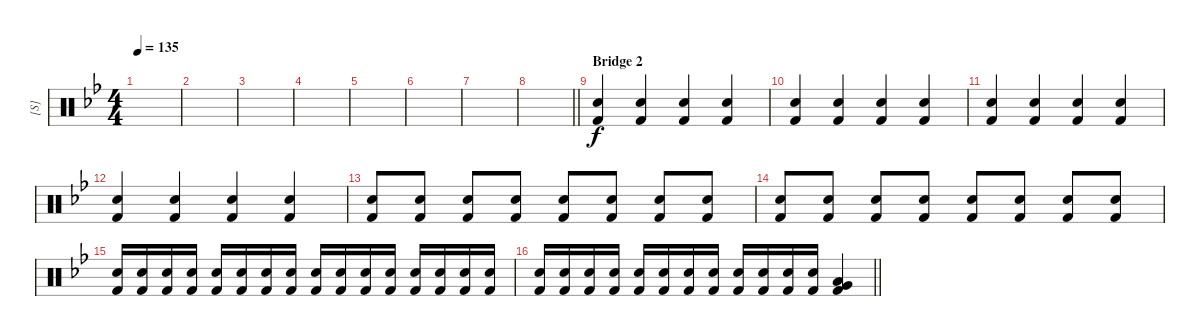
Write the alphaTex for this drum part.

\track ("[S]" "[S]") {instrument percussion}
\staff {score}
\articulation defaults
\ts (4 4)
\tempo 135
\clef neutral
\ks gminor
|
|
|
|
|
|
|
\barLineRight lightlight
|
\section ("" "Bridge 2")
("Snare (hit) 2" "Kick (hit) 2").4 ("Snare (hit) 2" "Kick (hit) 2").4 ("Snare (hit) 2" "Kick (hit) 2").4 ("Snare (hit) 2" "Kick (hit) 2").4 |
("Snare (hit) 2" "Kick (hit) 2").4 ("Snare (hit) 2" "Kick (hit) 2").4 ("Snare (hit) 2" "Kick (hit) 2").4 ("Snare (hit) 2" "Kick (hit) 2").4 |
("Snare (hit) 2" "Kick (hit) 2").4 ("Snare (hit) 2" "Kick (hit) 2").4 ("Snare (hit) 2" "Kick (hit) 2").4 ("Snare (hit) 2" "Kick (hit) 2").4 |
("Snare (hit) 2" "Kick (hit) 2").4 ("Snare (hit) 2" "Kick (hit) 2").4 ("Snare (hit) 2" "Kick (hit) 2").4 ("Snare (hit) 2" "Kick (hit) 2").4 |
("Snare (hit) 2" "Kick (hit) 2").8 ("Snare (hit) 2" "Kick (hit) 2").8 ("Snare (hit) 2" "Kick (hit) 2").8 ("Snare (hit) 2" "Kick (hit) 2").8 ("Snare (hit) 2" "Kick (hit) 2").8 ("Snare (hit) 2" "Kick (hit) 2").8 ("Snare (hit) 2" "Kick (hit) 2").8 ("Snare (hit) 2" "Kick (hit) 2").8 |
("Snare (hit) 2" "Kick (hit) 2").8 ("Snare (hit) 2" "Kick (hit) 2").8 ("Snare (hit) 2" "Kick (hit) 2").8 ("Snare (hit) 2" "Kick (hit) 2").8 ("Snare (hit) 2" "Kick (hit) 2").8 ("Snare (hit) 2" "Kick (hit) 2").8 ("Snare (hit) 2" "Kick (hit) 2").8 ("Snare (hit) 2" "Kick (hit) 2").8 |
("Snare (hit) 2" "Kick (hit) 2").16 ("Snare (hit) 2" "Kick (hit) 2").16 ("Snare (hit) 2" "Kick (hit) 2").16 ("Snare (hit) 2" "Kick (hit) 2").16 ("Snare (hit) 2" "Kick (hit) 2").16 ("Snare (hit) 2" "Kick (hit) 2").16 ("Snare (hit) 2" "Kick (hit) 2").16 ("Snare (hit) 2" "Kick (hit) 2").16 ("Snare (hit) 2" "Kick (hit) 2").16 ("Snare (hit) 2" "Kick (hit) 2").16 ("Snare (hit) 2" "Kick (hit) 2").16 ("Snare (hit) 2" "Kick (hit) 2").16 ("Snare (hit) 2" "Kick (hit) 2").16 ("Snare (hit) 2" "Kick (hit) 2").16 ("Snare (hit) 2" "Kick (hit) 2").16 ("Snare (hit) 2" "Kick (hit) 2").16 |
\barLineRight lightlight
("Snare (hit) 2" "Kick (hit) 2").16 ("Snare (hit) 2" "Kick (hit) 2").16 ("Snare (hit) 2" "Kick (hit) 2").16 ("Snare (hit) 2" "Kick (hit) 2").16 ("Snare (hit) 2" "Kick (hit) 2").16 ("Snare (hit) 2" "Kick (hit) 2").16 ("Snare (hit) 2" "Kick (hit) 2").16 ("Snare (hit) 2" "Kick (hit) 2").16 ("Snare (hit) 2" "Kick (hit) 2").16 ("Snare (hit) 2" "Kick (hit) 2").16 ("Snare (hit) 2" "Kick (hit) 2").16 ("Snare (hit) 2" "Kick (hit) 2").16 ("Very Low Tom (hit)" "Low Tom (hit)" "Kick (hit) 2").4
